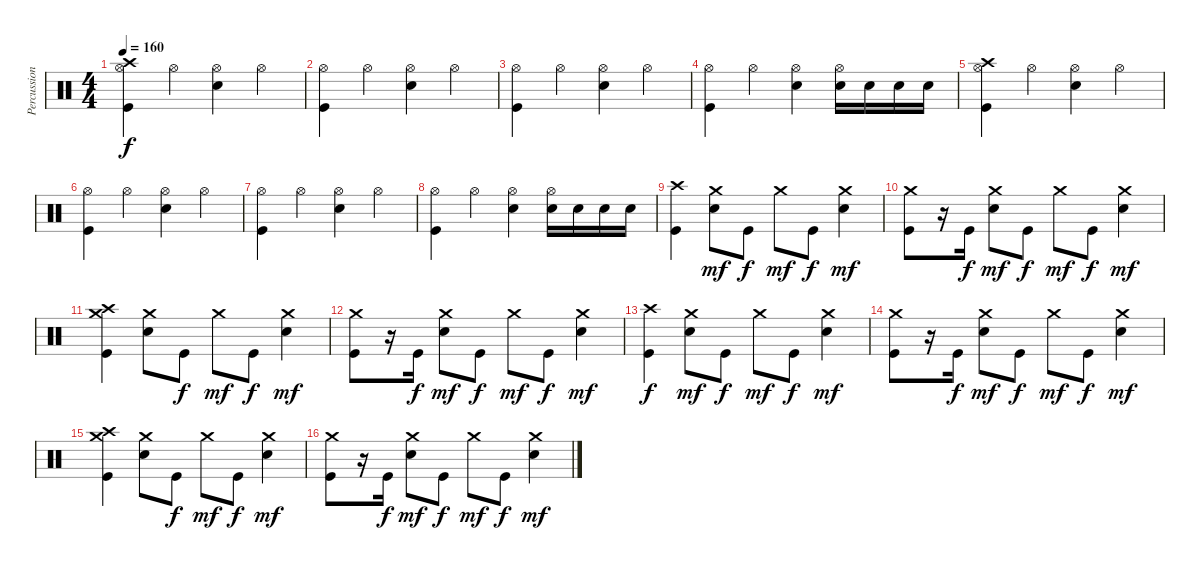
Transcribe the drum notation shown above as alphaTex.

\track ("Percussion" "Percussion") {instrument percussion}
\staff {score}
\articulation defaults
\ts (4 4)
\tempo 160
\clef neutral
\ks c
("Kick (hit)" "Crash high (hit)" "Hi-Hat (open)").4{dy f} "Hi-Hat (open)".4 ("Electric Snare (hit)" "Hi-Hat (open)").4 "Hi-Hat (open)".4 |
("Kick (hit)" "Hi-Hat (open)").4 "Hi-Hat (open)".4 ("Electric Snare (hit)" "Hi-Hat (open)").4 "Hi-Hat (open)".4 |
("Kick (hit)" "Hi-Hat (open)").4 "Hi-Hat (open)".4 ("Electric Snare (hit)" "Hi-Hat (open)").4 "Hi-Hat (open)".4 |
("Kick (hit)" "Hi-Hat (open)").4 "Hi-Hat (open)".4 ("Electric Snare (hit)" "Hi-Hat (open)").4 ("Electric Snare (hit)" "Hi-Hat (open)").16 "Electric Snare (hit)".16 "Electric Snare (hit)".16 "Electric Snare (hit)".16 |
("Kick (hit)" "Crash high (hit)" "Hi-Hat (open)").4 "Hi-Hat (open)".4 ("Electric Snare (hit)" "Hi-Hat (open)").4 "Hi-Hat (open)".4 |
("Kick (hit)" "Hi-Hat (open)").4 "Hi-Hat (open)".4 ("Electric Snare (hit)" "Hi-Hat (open)").4 "Hi-Hat (open)".4 |
("Kick (hit)" "Hi-Hat (open)").4 "Hi-Hat (open)".4 ("Electric Snare (hit)" "Hi-Hat (open)").4 "Hi-Hat (open)".4 |
("Kick (hit)" "Hi-Hat (open)").4 "Hi-Hat (open)".4 ("Electric Snare (hit)" "Hi-Hat (open)").4 ("Electric Snare (hit)" "Hi-Hat (open)").16 "Electric Snare (hit)".16 "Electric Snare (hit)".16 "Electric Snare (hit)".16 |
("Kick (hit)" "Crash high (hit)").4 ("Electric Snare (hit)" "Crash medium (hit)").8{dy mf} "Kick (hit)".8{dy f} "Crash medium (hit)".8{dy mf} "Kick (hit)".8{dy f} ("Electric Snare (hit)" "Crash medium (hit)").4{dy mf} |
("Kick (hit)" "Crash medium (hit)").8 r.16 "Kick (hit)".16{dy f} ("Electric Snare (hit)" "Crash medium (hit)").8{dy mf} "Kick (hit)".8{dy f} "Crash medium (hit)".8{dy mf} "Kick (hit)".8{dy f} ("Electric Snare (hit)" "Crash medium (hit)").4{dy mf} |
("Kick (hit)" "Crash medium (hit)" "Crash high (hit)").4 ("Electric Snare (hit)" "Crash medium (hit)").8 "Kick (hit)".8{dy f} "Crash medium (hit)".8{dy mf} "Kick (hit)".8{dy f} ("Electric Snare (hit)" "Crash medium (hit)").4{dy mf} |
("Kick (hit)" "Crash medium (hit)").8 r.16 "Kick (hit)".16{dy f} ("Electric Snare (hit)" "Crash medium (hit)").8{dy mf} "Kick (hit)".8{dy f} "Crash medium (hit)".8{dy mf} "Kick (hit)".8{dy f} ("Electric Snare (hit)" "Crash medium (hit)").4{dy mf} |
("Kick (hit)" "Crash high (hit)").4{dy f} ("Electric Snare (hit)" "Crash medium (hit)").8{dy mf} "Kick (hit)".8{dy f} "Crash medium (hit)".8{dy mf} "Kick (hit)".8{dy f} ("Electric Snare (hit)" "Crash medium (hit)").4{dy mf} |
("Kick (hit)" "Crash medium (hit)").8 r.16 "Kick (hit)".16{dy f} ("Electric Snare (hit)" "Crash medium (hit)").8{dy mf} "Kick (hit)".8{dy f} "Crash medium (hit)".8{dy mf} "Kick (hit)".8{dy f} ("Electric Snare (hit)" "Crash medium (hit)").4{dy mf} |
("Kick (hit)" "Crash medium (hit)" "Crash high (hit)").4 ("Electric Snare (hit)" "Crash medium (hit)").8 "Kick (hit)".8{dy f} "Crash medium (hit)".8{dy mf} "Kick (hit)".8{dy f} ("Electric Snare (hit)" "Crash medium (hit)").4{dy mf} |
("Kick (hit)" "Crash medium (hit)").8 r.16 "Kick (hit)".16{dy f} ("Electric Snare (hit)" "Crash medium (hit)").8{dy mf} "Kick (hit)".8{dy f} "Crash medium (hit)".8{dy mf} "Kick (hit)".8{dy f} ("Electric Snare (hit)" "Crash medium (hit)").4{dy mf}
